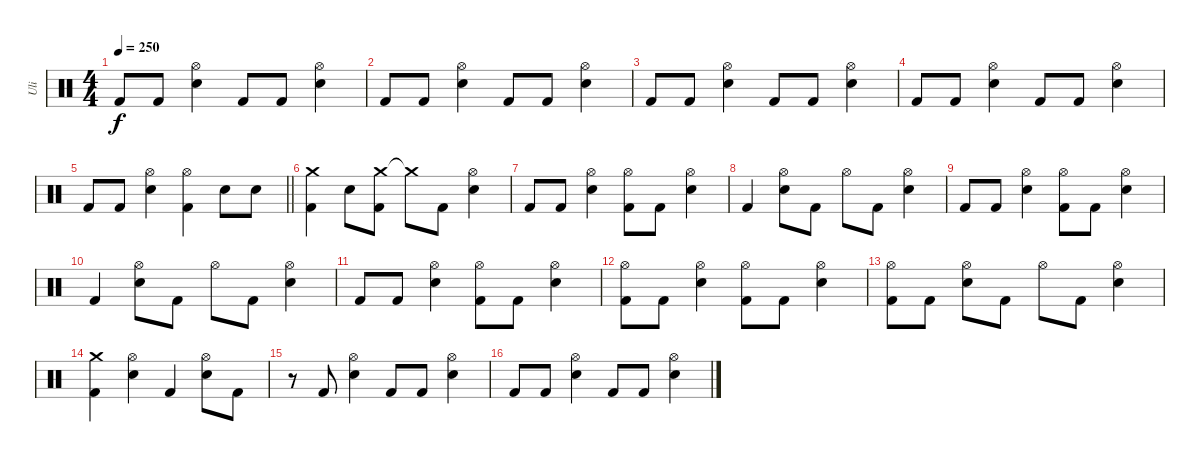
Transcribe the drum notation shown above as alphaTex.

\track ("Uli" "Uli") {instrument percussion}
\staff {score}
\articulation defaults
\ts (4 4)
\tempo 250
\clef neutral
\ks c "Kick (hit) 2".8{dy f} "Kick (hit) 2".8
("Hi-Hat (open)" "Snare (hit) 2").4 "Kick (hit) 2".8 "Kick (hit) 2".8 ("Hi-Hat (open)" "Snare (hit) 2").4 |
"Kick (hit) 2".8 "Kick (hit) 2".8 ("Hi-Hat (open)" "Snare (hit) 2").4 "Kick (hit) 2".8 "Kick (hit) 2".8 ("Hi-Hat (open)" "Snare (hit) 2").4 |
"Kick (hit) 2".8 "Kick (hit) 2".8 ("Hi-Hat (open)" "Snare (hit) 2").4 "Kick (hit) 2".8 "Kick (hit) 2".8 ("Hi-Hat (open)" "Snare (hit) 2").4 |
"Kick (hit) 2".8 "Kick (hit) 2".8 ("Hi-Hat (open)" "Snare (hit) 2").4 "Kick (hit) 2".8 "Kick (hit) 2".8 ("Hi-Hat (open)" "Snare (hit) 2").4 |
\barLineRight lightlight "Kick (hit) 2".8 "Kick (hit) 2".8
("Hi-Hat (open)" "Snare (hit) 2").4 ("Hi-Hat (open)" "Kick (hit) 2").4 "Snare (hit) 2".8 "Snare (hit) 2".8 |
("Crash medium (hit)" "Kick (hit) 2").4 "Snare (hit) 2".8 ("Crash medium (hit)" "Kick (hit) 2").8 "Crash medium (hit)"{t}.8 "Kick (hit) 2".8 ("Hi-Hat (open)" "Snare (hit) 2").4 |
"Kick (hit) 2".8 "Kick (hit) 2".8 ("Hi-Hat (open)" "Snare (hit) 2").4 ("Hi-Hat (open)" "Kick (hit) 2").8 "Kick (hit) 2".8 ("Hi-Hat (open)" "Snare (hit) 2").4 |
"Kick (hit) 2".4 ("Hi-Hat (open)" "Snare (hit) 2").8 "Kick (hit) 2".8 "Hi-Hat (open)".8 "Kick (hit) 2".8 ("Hi-Hat (open)" "Snare (hit) 2").4 |
"Kick (hit) 2".8 "Kick (hit) 2".8 ("Hi-Hat (open)" "Snare (hit) 2").4 ("Hi-Hat (open)" "Kick (hit) 2").8 "Kick (hit) 2".8 ("Hi-Hat (open)" "Snare (hit) 2").4 |
"Kick (hit) 2".4 ("Hi-Hat (open)" "Snare (hit) 2").8 "Kick (hit) 2".8 "Hi-Hat (open)".8 "Kick (hit) 2".8 ("Hi-Hat (open)" "Snare (hit) 2").4 |
"Kick (hit) 2".8 "Kick (hit) 2".8 ("Hi-Hat (open)" "Snare (hit) 2").4 ("Hi-Hat (open)" "Kick (hit) 2").8 "Kick (hit) 2".8 ("Hi-Hat (open)" "Snare (hit) 2").4 |
("Hi-Hat (open)" "Kick (hit) 2").8 "Kick (hit) 2".8 ("Hi-Hat (open)" "Snare (hit) 2").4 ("Hi-Hat (open)" "Kick (hit) 2").8 "Kick (hit) 2".8 ("Hi-Hat (open)" "Snare (hit) 2").4 |
("Hi-Hat (open)" "Kick (hit) 2").8 "Kick (hit) 2".8 ("Hi-Hat (open)" "Snare (hit) 2").8 "Kick (hit) 2".8 "Hi-Hat (open)".8 "Kick (hit) 2".8 ("Hi-Hat (open)" "Snare (hit) 2").4 |
("Crash medium (hit)" "Kick (hit) 2").4 ("Hi-Hat (open)" "Snare (hit) 2").4 "Kick (hit) 2".4 ("Hi-Hat (open)" "Snare (hit) 2").8 "Kick (hit) 2".8 |
r.8 "Kick (hit) 2".8 ("Hi-Hat (open)" "Snare (hit) 2").4 "Kick (hit) 2".8 "Kick (hit) 2".8 ("Hi-Hat (open)" "Snare (hit) 2").4 |
"Kick (hit) 2".8 "Kick (hit) 2".8 ("Hi-Hat (open)" "Snare (hit) 2").4 "Kick (hit) 2".8 "Kick (hit) 2".8 ("Hi-Hat (open)" "Snare (hit) 2").4
